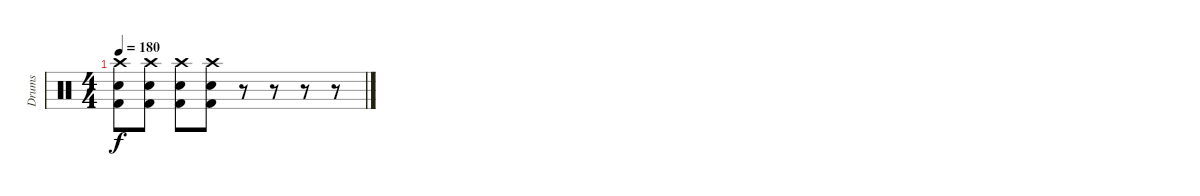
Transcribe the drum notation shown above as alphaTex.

\track ("Drums" "Drums") {instrument percussion}
\staff {score}
\articulation defaults
\ts (4 4)
\tempo 180
\clef neutral
\ks c
("Crash high (hit)" "Snare (hit) 2" "Kick (hit) 2").8{dy f} ("Crash high (hit)" "Snare (hit) 2" "Kick (hit) 2").8 ("Crash high (hit)" "Snare (hit) 2" "Kick (hit) 2").8 ("Crash high (hit)" "Snare (hit) 2" "Kick (hit) 2").8 r.8 r.8 r.8 r.8
